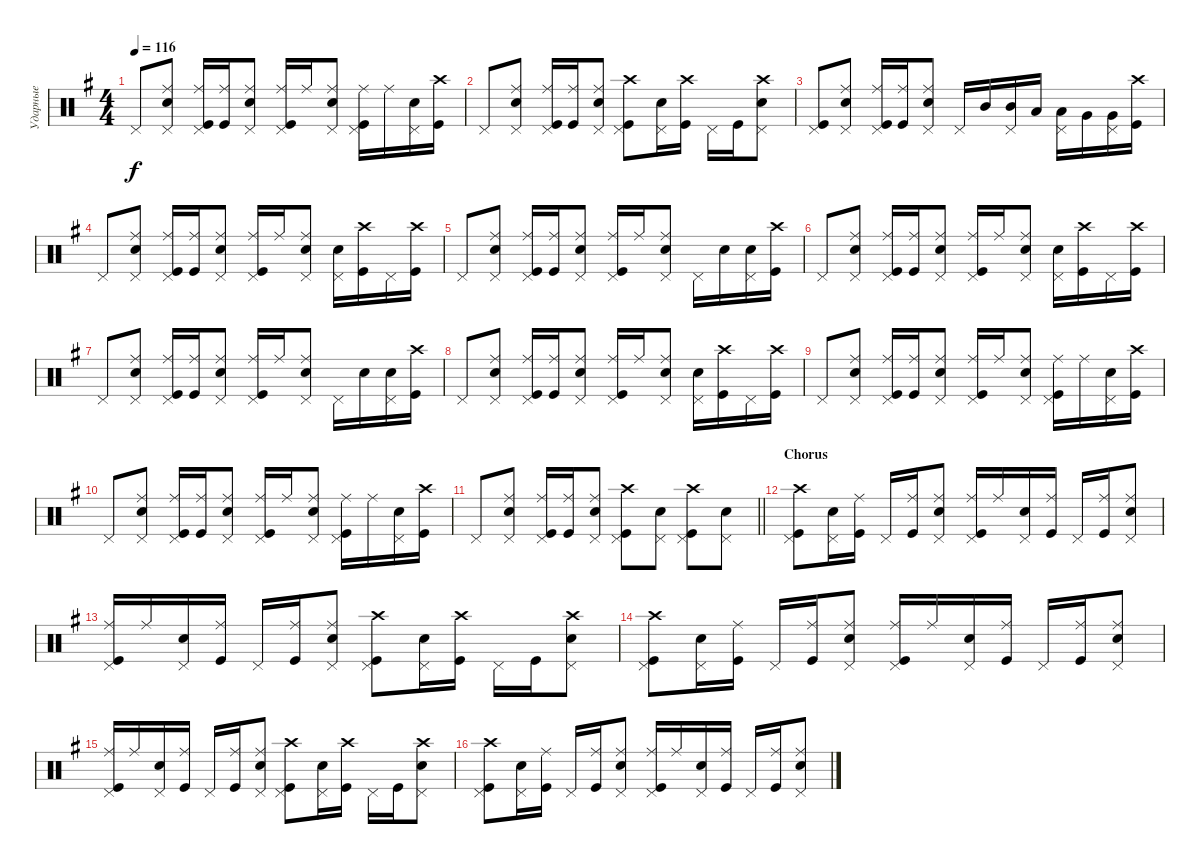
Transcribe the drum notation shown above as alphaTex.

\track ("Ударные" "Ударные") {instrument percussion}
\staff {score}
\articulation defaults
\ts (4 4)
\tempo 116
\clef neutral
\ks eminor "Pedal Hi-Hat (hit)".8{dy f}
("Snare (hit) 2" "Pedal Hi-Hat (hit)" "Ride (middle)").8 ("Kick (hit)" "Pedal Hi-Hat (hit)" "Ride (middle)").16 ("Kick (hit)" "Ride (middle)").16 ("Snare (hit) 2" "Pedal Hi-Hat (hit)" "Ride (middle)").8 ("Kick (hit)" "Pedal Hi-Hat (hit)" "Ride (middle)").16 "Ride (middle)".16 ("Snare (hit) 2" "Pedal Hi-Hat (hit)" "Ride (middle)").8 ("Kick (hit)" "Ride (middle)" "Pedal Hi-Hat (hit)").16 "Ride (middle)".16 ("Snare (hit) 2" "Pedal Hi-Hat (hit)").16 ("Kick (hit)" "Crash high (hit)").16 |
"Pedal Hi-Hat (hit)".8 ("Snare (hit) 2" "Ride (middle)" "Pedal Hi-Hat (hit)").8 ("Kick (hit)" "Ride (middle)" "Pedal Hi-Hat (hit)").16 ("Kick (hit)" "Ride (middle)").16 ("Snare (hit) 2" "Ride (middle)" "Pedal Hi-Hat (hit)").8 ("Kick (hit)" "Crash high (hit)" "Pedal Hi-Hat (hit)").8 ("Snare (hit) 2" "Pedal Hi-Hat (hit)").16 ("Kick (hit)" "Crash high (hit)").16 "Pedal Hi-Hat (hit)".16 "Kick (hit)".16 ("Snare (hit) 2" "Crash high (hit)" "Pedal Hi-Hat (hit)").8 |
("Kick (hit)" "Pedal Hi-Hat (hit)").8 ("Snare (hit) 2" "Ride (middle)" "Pedal Hi-Hat (hit)").8 ("Kick (hit)" "Ride (middle)" "Pedal Hi-Hat (hit)").16 ("Kick (hit)" "Ride (middle)").16 ("Snare (hit) 2" "Ride (middle)" "Pedal Hi-Hat (hit)").8 "Pedal Hi-Hat (hit)".16 "Mid Tom (hit)".16 ("Mid Tom (hit)" "Pedal Hi-Hat (hit)").16 "Low Tom (hit)".16 ("Low Tom (hit)" "Pedal Hi-Hat (hit)").16 "Very Low Tom (hit)".16 ("Pedal Hi-Hat (hit)" "Very Low Tom (hit)").16 ("Kick (hit)" "Crash high (hit)").16 |
"Pedal Hi-Hat (hit)".8 ("Snare (hit) 2" "Pedal Hi-Hat (hit)" "Ride (middle)").8 ("Kick (hit)" "Pedal Hi-Hat (hit)" "Ride (middle)").16 ("Kick (hit)" "Ride (middle)").16 ("Snare (hit) 2" "Pedal Hi-Hat (hit)" "Ride (middle)").8 ("Pedal Hi-Hat (hit)" "Kick (hit)" "Ride (middle)").16 "Ride (middle)".16 ("Snare (hit) 2" "Pedal Hi-Hat (hit)" "Ride (middle)").8 ("Snare (hit) 2" "Pedal Hi-Hat (hit)").16 ("Kick (hit)" "Crash high (hit)").16 "Pedal Hi-Hat (hit)".16 ("Kick (hit)" "Crash high (hit)").16 |
"Pedal Hi-Hat (hit)".8 ("Snare (hit) 2" "Pedal Hi-Hat (hit)" "Ride (middle)").8 ("Kick (hit)" "Pedal Hi-Hat (hit)" "Ride (middle)").16 ("Kick (hit)" "Ride (middle)").16 ("Snare (hit) 2" "Pedal Hi-Hat (hit)" "Ride (middle)").8 ("Pedal Hi-Hat (hit)" "Kick (hit)" "Ride (middle)").16 "Ride (middle)".16 ("Snare (hit) 2" "Pedal Hi-Hat (hit)" "Ride (middle)").8 "Pedal Hi-Hat (hit)".16 "Snare (hit) 2".16 ("Snare (hit) 2" "Pedal Hi-Hat (hit)").16 ("Kick (hit)" "Crash high (hit)").16 |
"Pedal Hi-Hat (hit)".8 ("Snare (hit) 2" "Pedal Hi-Hat (hit)" "Ride (middle)").8 ("Kick (hit)" "Pedal Hi-Hat (hit)" "Ride (middle)").16 ("Kick (hit)" "Ride (middle)").16 ("Snare (hit) 2" "Pedal Hi-Hat (hit)" "Ride (middle)").8 ("Pedal Hi-Hat (hit)" "Kick (hit)" "Ride (middle)").16 "Ride (middle)".16 ("Snare (hit) 2" "Pedal Hi-Hat (hit)" "Ride (middle)").8 ("Snare (hit) 2" "Pedal Hi-Hat (hit)").16 ("Kick (hit)" "Crash high (hit)").16 "Pedal Hi-Hat (hit)".16 ("Kick (hit)" "Crash high (hit)").16 |
"Pedal Hi-Hat (hit)".8 ("Snare (hit) 2" "Pedal Hi-Hat (hit)" "Ride (middle)").8 ("Kick (hit)" "Pedal Hi-Hat (hit)" "Ride (middle)").16 ("Kick (hit)" "Ride (middle)").16 ("Snare (hit) 2" "Pedal Hi-Hat (hit)" "Ride (middle)").8 ("Pedal Hi-Hat (hit)" "Kick (hit)" "Ride (middle)").16 "Ride (middle)".16 ("Snare (hit) 2" "Pedal Hi-Hat (hit)" "Ride (middle)").8 "Pedal Hi-Hat (hit)".16 "Snare (hit) 2".16 ("Snare (hit) 2" "Pedal Hi-Hat (hit)").16 ("Kick (hit)" "Crash high (hit)").16 |
"Pedal Hi-Hat (hit)".8 ("Snare (hit) 2" "Pedal Hi-Hat (hit)" "Ride (middle)").8 ("Kick (hit)" "Pedal Hi-Hat (hit)" "Ride (middle)").16 ("Kick (hit)" "Ride (middle)").16 ("Snare (hit) 2" "Pedal Hi-Hat (hit)" "Ride (middle)").8 ("Pedal Hi-Hat (hit)" "Kick (hit)" "Ride (middle)").16 "Ride (middle)".16 ("Snare (hit) 2" "Pedal Hi-Hat (hit)" "Ride (middle)").8 ("Snare (hit) 2" "Pedal Hi-Hat (hit)").16 ("Kick (hit)" "Crash high (hit)").16 "Pedal Hi-Hat (hit)".16 ("Kick (hit)" "Crash high (hit)").16 |
"Pedal Hi-Hat (hit)".8 ("Snare (hit) 2" "Pedal Hi-Hat (hit)" "Ride (middle)").8 ("Kick (hit)" "Pedal Hi-Hat (hit)" "Ride (middle)").16 ("Kick (hit)" "Ride (middle)").16 ("Snare (hit) 2" "Pedal Hi-Hat (hit)" "Ride (middle)").8 ("Kick (hit)" "Pedal Hi-Hat (hit)" "Ride (middle)").16 "Ride (middle)".16 ("Snare (hit) 2" "Pedal Hi-Hat (hit)" "Ride (middle)").8 ("Kick (hit)" "Ride (middle)" "Pedal Hi-Hat (hit)").16 "Ride (middle)".16 ("Snare (hit) 2" "Pedal Hi-Hat (hit)").16 ("Kick (hit)" "Crash high (hit)").16 |
"Pedal Hi-Hat (hit)".8 ("Snare (hit) 2" "Pedal Hi-Hat (hit)" "Ride (middle)").8 ("Kick (hit)" "Pedal Hi-Hat (hit)" "Ride (middle)").16 ("Kick (hit)" "Ride (middle)").16 ("Snare (hit) 2" "Pedal Hi-Hat (hit)" "Ride (middle)").8 ("Kick (hit)" "Pedal Hi-Hat (hit)" "Ride (middle)").16 "Ride (middle)".16 ("Snare (hit) 2" "Pedal Hi-Hat (hit)" "Ride (middle)").8 ("Kick (hit)" "Ride (middle)" "Pedal Hi-Hat (hit)").16 "Ride (middle)".16 ("Snare (hit) 2" "Pedal Hi-Hat (hit)").16 ("Kick (hit)" "Crash high (hit)").16 |
\barLineRight lightlight "Pedal Hi-Hat (hit)".8
("Snare (hit) 2" "Pedal Hi-Hat (hit)" "Ride (middle)").8 ("Kick (hit)" "Pedal Hi-Hat (hit)" "Ride (middle)").16 ("Kick (hit)" "Ride (middle)").16 ("Snare (hit) 2" "Pedal Hi-Hat (hit)" "Ride (middle)").8 ("Kick (hit)" "Crash high (hit)" "Pedal Hi-Hat (hit)").8 ("Snare (hit) 2" "Pedal Hi-Hat (hit)").8 ("Kick (hit)" "Crash high (hit)" "Pedal Hi-Hat (hit)").8 ("Snare (hit) 2" "Pedal Hi-Hat (hit)").8 |
\section ("" "Chorus")
("Kick (hit)" "Crash high (hit)" "Pedal Hi-Hat (hit)").8 ("Snare (hit) 2" "Pedal Hi-Hat (hit)").16 ("Kick (hit)" "Ride (middle)").16 "Pedal Hi-Hat (hit)".16 ("Ride (middle)" "Kick (hit)").16 ("Snare (hit) 2" "Ride (middle)" "Pedal Hi-Hat (hit)").8 ("Kick (hit)" "Ride (middle)" "Pedal Hi-Hat (hit)").16 "Ride (middle)".16 ("Snare (hit) 2" "Pedal Hi-Hat (hit)").16 ("Kick (hit)" "Ride (middle)").16 "Pedal Hi-Hat (hit)".16 ("Ride (middle)" "Kick (hit)").16 ("Ride (middle)" "Snare (hit) 2" "Pedal Hi-Hat (hit)").8 |
("Kick (hit)" "Ride (middle)" "Pedal Hi-Hat (hit)").16 "Ride (middle)".16 ("Snare (hit) 2" "Pedal Hi-Hat (hit)").16 ("Kick (hit)" "Ride (middle)").16 "Pedal Hi-Hat (hit)".16 ("Ride (middle)" "Kick (hit)").16 ("Snare (hit) 2" "Ride (middle)" "Pedal Hi-Hat (hit)").8 ("Kick (hit)" "Crash high (hit)" "Pedal Hi-Hat (hit)").8 ("Snare (hit) 2" "Pedal Hi-Hat (hit)").16 ("Kick (hit)" "Crash high (hit)").16 "Pedal Hi-Hat (hit)".16 "Kick (hit)".16 ("Crash high (hit)" "Snare (hit) 2" "Pedal Hi-Hat (hit)").8 |
("Kick (hit)" "Crash high (hit)" "Pedal Hi-Hat (hit)").8 ("Snare (hit) 2" "Pedal Hi-Hat (hit)").16 ("Kick (hit)" "Ride (middle)").16 "Pedal Hi-Hat (hit)".16 ("Ride (middle)" "Kick (hit)").16 ("Snare (hit) 2" "Ride (middle)" "Pedal Hi-Hat (hit)").8 ("Kick (hit)" "Ride (middle)" "Pedal Hi-Hat (hit)").16 "Ride (middle)".16 ("Snare (hit) 2" "Pedal Hi-Hat (hit)").16 ("Kick (hit)" "Ride (middle)").16 "Pedal Hi-Hat (hit)".16 ("Ride (middle)" "Kick (hit)").16 ("Ride (middle)" "Snare (hit) 2" "Pedal Hi-Hat (hit)").8 |
("Kick (hit)" "Ride (middle)" "Pedal Hi-Hat (hit)").16 "Ride (middle)".16 ("Snare (hit) 2" "Pedal Hi-Hat (hit)").16 ("Kick (hit)" "Ride (middle)").16 "Pedal Hi-Hat (hit)".16 ("Ride (middle)" "Kick (hit)").16 ("Snare (hit) 2" "Ride (middle)" "Pedal Hi-Hat (hit)").8 ("Kick (hit)" "Crash high (hit)" "Pedal Hi-Hat (hit)").8 ("Snare (hit) 2" "Pedal Hi-Hat (hit)").16 ("Kick (hit)" "Crash high (hit)").16 "Pedal Hi-Hat (hit)".16 "Kick (hit)".16 ("Crash high (hit)" "Snare (hit) 2" "Pedal Hi-Hat (hit)").8 |
("Kick (hit)" "Crash high (hit)" "Pedal Hi-Hat (hit)").8 ("Snare (hit) 2" "Pedal Hi-Hat (hit)").16 ("Kick (hit)" "Ride (middle)").16 "Pedal Hi-Hat (hit)".16 ("Ride (middle)" "Kick (hit)").16 ("Snare (hit) 2" "Ride (middle)" "Pedal Hi-Hat (hit)").8 ("Kick (hit)" "Ride (middle)" "Pedal Hi-Hat (hit)").16 "Ride (middle)".16 ("Snare (hit) 2" "Pedal Hi-Hat (hit)").16 ("Kick (hit)" "Ride (middle)").16 "Pedal Hi-Hat (hit)".16 ("Ride (middle)" "Kick (hit)").16 ("Ride (middle)" "Snare (hit) 2" "Pedal Hi-Hat (hit)").8
